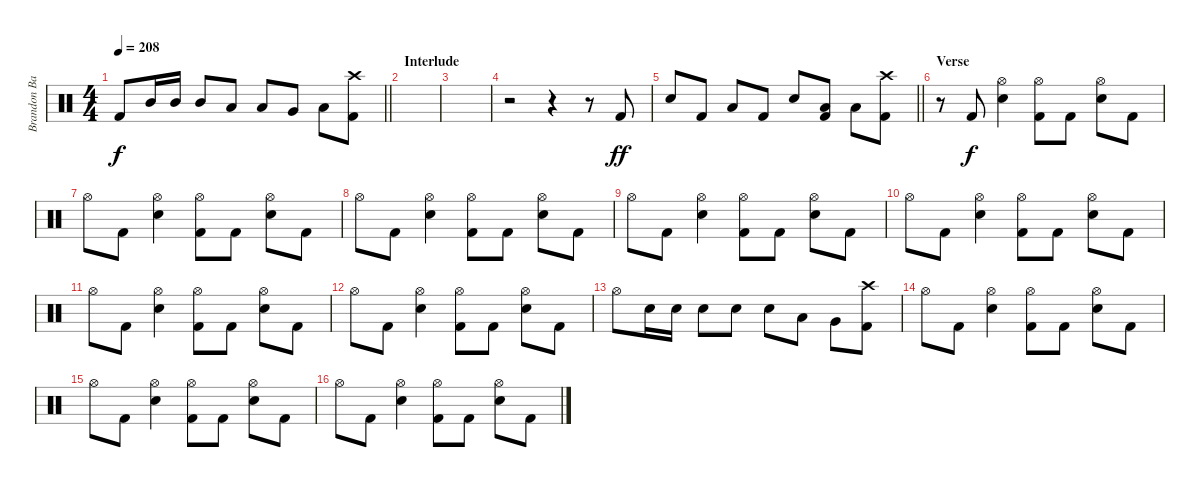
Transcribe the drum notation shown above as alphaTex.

\track ("Brandon Barnes - Drums" "Brandon Ba") {instrument percussion}
\staff {score}
\articulation defaults
\ts (4 4)
\tempo 208
\clef neutral
\barLineRight lightlight
\ks c "Kick (hit) 2".8{dy f} "Mid Tom (hit)".16 "Mid Tom (hit)".16 "Mid Tom (hit)".8 "Low Tom (hit)".8 "Low Tom (hit)".8 "Very Low Tom (hit)".8 "Low Floor Tom (hit)".8
("Kick (hit) 2" "Crash high (hit)").8 |
\section ("" "Interlude")
|
|
r.2 r.4 r.8 "Kick (hit) 2".8{dy ff} |
\barLineRight lightlight "Snare (hit) 2".8 "Kick (hit) 2".8 "Low Tom (hit)".8 "Kick (hit) 2".8 "Snare (hit) 2".8
("Low Tom (hit)" "Kick (hit) 2").8 "Low Tom (hit)".8 ("Kick (hit) 2" "Crash high (hit)").8 |
\section ("" "Verse")
r.8 "Kick (hit) 2".8{dy f} ("Snare (hit) 2" "Hi-Hat (open)").4 ("Kick (hit) 2" "Hi-Hat (open)").8 "Kick (hit) 2".8 ("Snare (hit) 2" "Hi-Hat (open)").8 "Kick (hit) 2".8 |
"Hi-Hat (open)".8 "Kick (hit) 2".8 ("Snare (hit) 2" "Hi-Hat (open)").4 ("Kick (hit) 2" "Hi-Hat (open)").8 "Kick (hit) 2".8 ("Snare (hit) 2" "Hi-Hat (open)").8 "Kick (hit) 2".8 |
"Hi-Hat (open)".8 "Kick (hit) 2".8 ("Snare (hit) 2" "Hi-Hat (open)").4 ("Kick (hit) 2" "Hi-Hat (open)").8 "Kick (hit) 2".8 ("Snare (hit) 2" "Hi-Hat (open)").8 "Kick (hit) 2".8 |
"Hi-Hat (open)".8 "Kick (hit) 2".8 ("Snare (hit) 2" "Hi-Hat (open)").4 ("Kick (hit) 2" "Hi-Hat (open)").8 "Kick (hit) 2".8 ("Snare (hit) 2" "Hi-Hat (open)").8 "Kick (hit) 2".8 |
"Hi-Hat (open)".8 "Kick (hit) 2".8 ("Snare (hit) 2" "Hi-Hat (open)").4 ("Kick (hit) 2" "Hi-Hat (open)").8 "Kick (hit) 2".8 ("Snare (hit) 2" "Hi-Hat (open)").8 "Kick (hit) 2".8 |
"Hi-Hat (open)".8 "Kick (hit) 2".8 ("Snare (hit) 2" "Hi-Hat (open)").4 ("Kick (hit) 2" "Hi-Hat (open)").8 "Kick (hit) 2".8 ("Snare (hit) 2" "Hi-Hat (open)").8 "Kick (hit) 2".8 |
"Hi-Hat (open)".8 "Kick (hit) 2".8 ("Snare (hit) 2" "Hi-Hat (open)").4 ("Kick (hit) 2" "Hi-Hat (open)").8 "Kick (hit) 2".8 ("Snare (hit) 2" "Hi-Hat (open)").8 "Kick (hit) 2".8 |
"Hi-Hat (open)".8 "Snare (hit) 2".16 "Snare (hit) 2".16 "Snare (hit) 2".8 "Snare (hit) 2".8 "Snare (hit) 2".8 "Low Tom (hit)".8 "Very Low Tom (hit)".8 ("Crash high (hit)" "Kick (hit) 2").8 |
"Hi-Hat (open)".8 "Kick (hit) 2".8 ("Snare (hit) 2" "Hi-Hat (open)").4 ("Kick (hit) 2" "Hi-Hat (open)").8 "Kick (hit) 2".8 ("Snare (hit) 2" "Hi-Hat (open)").8 "Kick (hit) 2".8 |
"Hi-Hat (open)".8 "Kick (hit) 2".8 ("Snare (hit) 2" "Hi-Hat (open)").4 ("Kick (hit) 2" "Hi-Hat (open)").8 "Kick (hit) 2".8 ("Snare (hit) 2" "Hi-Hat (open)").8 "Kick (hit) 2".8 |
"Hi-Hat (open)".8 "Kick (hit) 2".8 ("Snare (hit) 2" "Hi-Hat (open)").4 ("Kick (hit) 2" "Hi-Hat (open)").8 "Kick (hit) 2".8 ("Snare (hit) 2" "Hi-Hat (open)").8 "Kick (hit) 2".8
